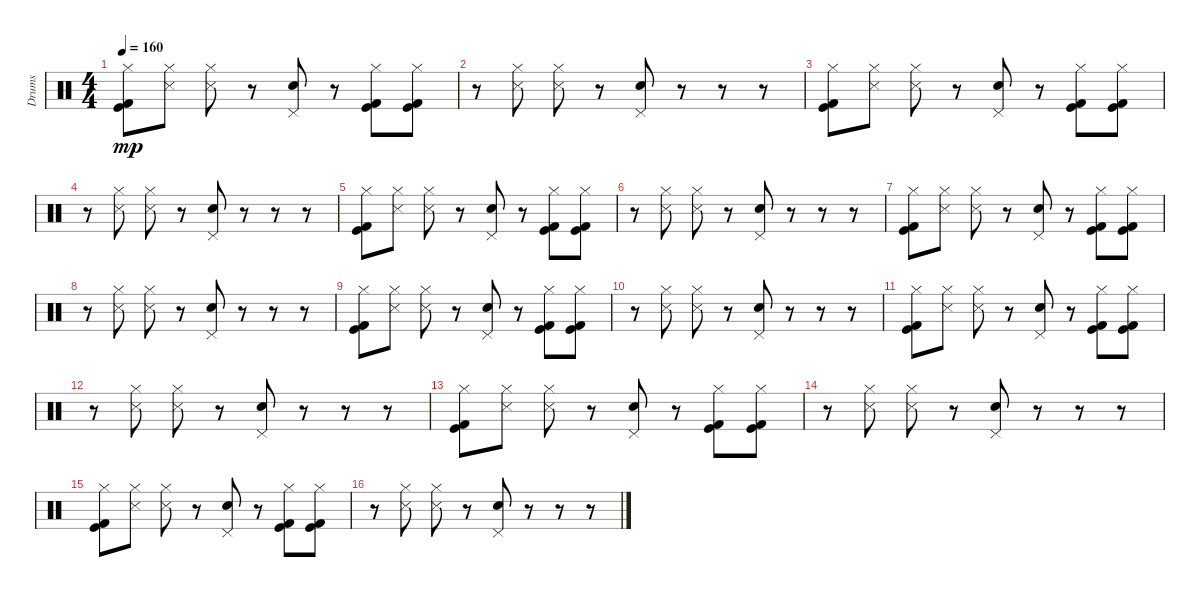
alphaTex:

\track ("Drums" "Drums") {instrument percussion}
\staff {score}
\articulation defaults
\ts (4 4)
\tempo 160
\clef neutral
\ks c
("Kick (hit)" "Kick (hit) 2" "Hi-Hat (closed)").8{dy mp} ("Metronome (hit)" "Hi-Hat (closed)").8 ("Metronome (hit)" "Hi-Hat (closed)").8 r.8 ("Pedal Hi-Hat (hit)" "Electric Snare (hit)").8 r.8 ("Kick (hit)" "Kick (hit) 2" "Hi-Hat (closed)").8 ("Kick (hit)" "Kick (hit) 2" "Hi-Hat (closed)").8 |
r.8 ("Metronome (hit)" "Hi-Hat (closed)").8 ("Metronome (hit)" "Hi-Hat (closed)").8 r.8 ("Pedal Hi-Hat (hit)" "Electric Snare (hit)").8 r.8 r.8 r.8 |
("Kick (hit)" "Kick (hit) 2" "Hi-Hat (closed)").8 ("Metronome (hit)" "Hi-Hat (closed)").8 ("Metronome (hit)" "Hi-Hat (closed)").8 r.8 ("Pedal Hi-Hat (hit)" "Electric Snare (hit)").8 r.8 ("Kick (hit)" "Kick (hit) 2" "Hi-Hat (closed)").8 ("Kick (hit)" "Kick (hit) 2" "Hi-Hat (closed)").8 |
r.8 ("Metronome (hit)" "Hi-Hat (closed)").8 ("Metronome (hit)" "Hi-Hat (closed)").8 r.8 ("Pedal Hi-Hat (hit)" "Electric Snare (hit)").8 r.8 r.8 r.8 |
("Kick (hit)" "Kick (hit) 2" "Hi-Hat (closed)").8 ("Metronome (hit)" "Hi-Hat (closed)").8 ("Metronome (hit)" "Hi-Hat (closed)").8 r.8 ("Pedal Hi-Hat (hit)" "Electric Snare (hit)").8 r.8 ("Kick (hit)" "Kick (hit) 2" "Hi-Hat (closed)").8 ("Kick (hit)" "Kick (hit) 2" "Hi-Hat (closed)").8 |
r.8 ("Metronome (hit)" "Hi-Hat (closed)").8 ("Metronome (hit)" "Hi-Hat (closed)").8 r.8 ("Pedal Hi-Hat (hit)" "Electric Snare (hit)").8 r.8 r.8 r.8 |
("Kick (hit)" "Kick (hit) 2" "Hi-Hat (closed)").8 ("Metronome (hit)" "Hi-Hat (closed)").8 ("Metronome (hit)" "Hi-Hat (closed)").8 r.8 ("Pedal Hi-Hat (hit)" "Electric Snare (hit)").8 r.8 ("Kick (hit)" "Kick (hit) 2" "Hi-Hat (closed)").8 ("Kick (hit)" "Kick (hit) 2" "Hi-Hat (closed)").8 |
r.8 ("Metronome (hit)" "Hi-Hat (closed)").8 ("Metronome (hit)" "Hi-Hat (closed)").8 r.8 ("Pedal Hi-Hat (hit)" "Electric Snare (hit)").8 r.8 r.8 r.8 |
("Kick (hit)" "Kick (hit) 2" "Hi-Hat (closed)").8 ("Metronome (hit)" "Hi-Hat (closed)").8 ("Metronome (hit)" "Hi-Hat (closed)").8 r.8 ("Pedal Hi-Hat (hit)" "Electric Snare (hit)").8 r.8 ("Kick (hit)" "Kick (hit) 2" "Hi-Hat (closed)").8 ("Kick (hit)" "Kick (hit) 2" "Hi-Hat (closed)").8 |
r.8 ("Metronome (hit)" "Hi-Hat (closed)").8 ("Metronome (hit)" "Hi-Hat (closed)").8 r.8 ("Pedal Hi-Hat (hit)" "Electric Snare (hit)").8 r.8 r.8 r.8 |
("Kick (hit)" "Kick (hit) 2" "Hi-Hat (closed)").8 ("Metronome (hit)" "Hi-Hat (closed)").8 ("Metronome (hit)" "Hi-Hat (closed)").8 r.8 ("Pedal Hi-Hat (hit)" "Electric Snare (hit)").8 r.8 ("Kick (hit)" "Kick (hit) 2" "Hi-Hat (closed)").8 ("Kick (hit)" "Kick (hit) 2" "Hi-Hat (closed)").8 |
r.8 ("Metronome (hit)" "Hi-Hat (closed)").8 ("Metronome (hit)" "Hi-Hat (closed)").8 r.8 ("Pedal Hi-Hat (hit)" "Electric Snare (hit)").8 r.8 r.8 r.8 |
("Kick (hit)" "Kick (hit) 2" "Hi-Hat (closed)").8 ("Metronome (hit)" "Hi-Hat (closed)").8 ("Metronome (hit)" "Hi-Hat (closed)").8 r.8 ("Pedal Hi-Hat (hit)" "Electric Snare (hit)").8 r.8 ("Kick (hit)" "Kick (hit) 2" "Hi-Hat (closed)").8 ("Kick (hit)" "Kick (hit) 2" "Hi-Hat (closed)").8 |
r.8 ("Metronome (hit)" "Hi-Hat (closed)").8 ("Metronome (hit)" "Hi-Hat (closed)").8 r.8 ("Pedal Hi-Hat (hit)" "Electric Snare (hit)").8 r.8 r.8 r.8 |
("Kick (hit)" "Kick (hit) 2" "Hi-Hat (closed)").8 ("Metronome (hit)" "Hi-Hat (closed)").8 ("Metronome (hit)" "Hi-Hat (closed)").8 r.8 ("Pedal Hi-Hat (hit)" "Electric Snare (hit)").8 r.8 ("Kick (hit)" "Kick (hit) 2" "Hi-Hat (closed)").8 ("Kick (hit)" "Kick (hit) 2" "Hi-Hat (closed)").8 |
r.8 ("Metronome (hit)" "Hi-Hat (closed)").8 ("Metronome (hit)" "Hi-Hat (closed)").8 r.8 ("Pedal Hi-Hat (hit)" "Electric Snare (hit)").8 r.8 r.8 r.8
